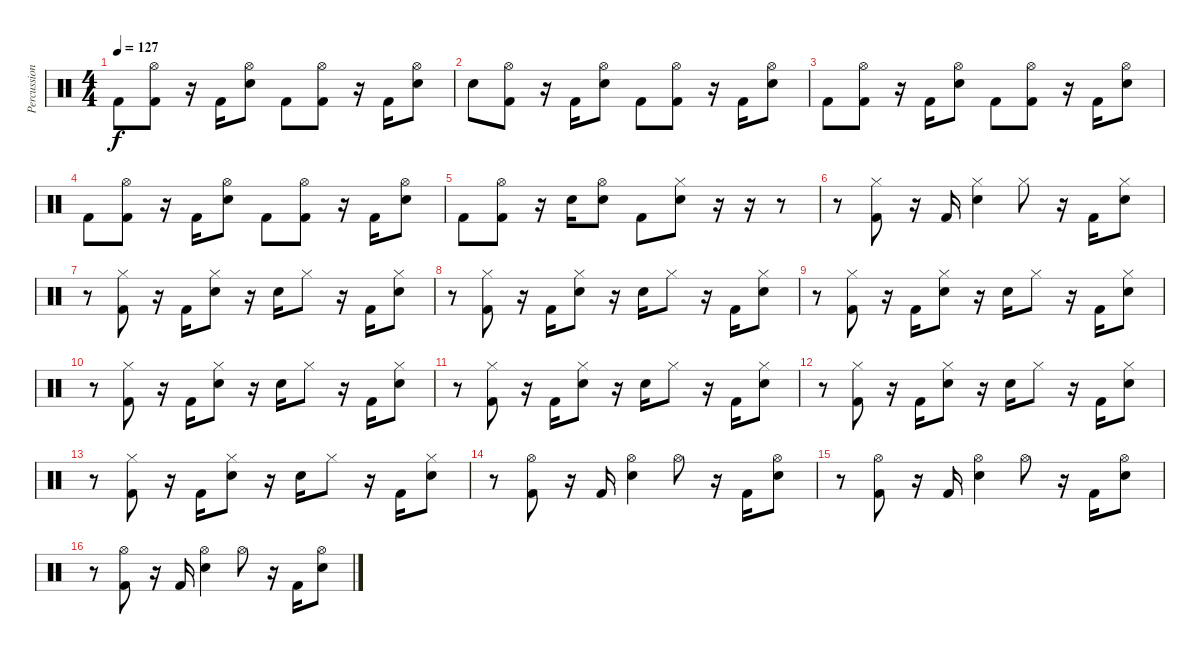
\track ("Percussion" "Percussion") {instrument percussion}
\staff {score}
\articulation defaults
\ts (4 4)
\tempo 127
\clef neutral
\ks c "Kick (hit) 2".8{dy f}
("Hi-Hat (open)" "Kick (hit) 2").8 r.16 "Kick (hit) 2".16 ("Hi-Hat (open)" "Electric Snare (hit)").8 "Kick (hit) 2".8 ("Hi-Hat (open)" "Kick (hit) 2").8 r.16 "Kick (hit) 2".16 ("Hi-Hat (open)" "Electric Snare (hit)").8 |
"Electric Snare (hit)".8 ("Hi-Hat (open)" "Kick (hit) 2").8 r.16 "Kick (hit) 2".16 ("Hi-Hat (open)" "Electric Snare (hit)").8 "Kick (hit) 2".8 ("Hi-Hat (open)" "Kick (hit) 2").8 r.16 "Kick (hit) 2".16 ("Hi-Hat (open)" "Electric Snare (hit)").8 |
"Kick (hit) 2".8 ("Hi-Hat (open)" "Kick (hit) 2").8 r.16 "Kick (hit) 2".16 ("Hi-Hat (open)" "Electric Snare (hit)").8 "Kick (hit) 2".8 ("Hi-Hat (open)" "Kick (hit) 2").8 r.16 "Kick (hit) 2".16 ("Hi-Hat (open)" "Electric Snare (hit)").8 |
"Kick (hit) 2".8 ("Hi-Hat (open)" "Kick (hit) 2").8 r.16 "Kick (hit) 2".16 ("Hi-Hat (open)" "Electric Snare (hit)").8 "Kick (hit) 2".8 ("Hi-Hat (open)" "Kick (hit) 2").8 r.16 "Kick (hit) 2".16 ("Hi-Hat (open)" "Electric Snare (hit)").8 |
"Kick (hit) 2".8 ("Hi-Hat (open)" "Kick (hit) 2").8 r.16 "Electric Snare (hit)".16 ("Hi-Hat (open)" "Electric Snare (hit)").8 "Kick (hit) 2".8 ("Hi-Hat (closed)" "Electric Snare (hit)").8 r.16 r.16 r.8 |
r.8 ("Hi-Hat (closed)" "Kick (hit) 2").8 r.16 "Kick (hit) 2".16 ("Hi-Hat (closed)" "Electric Snare (hit)").4 "Hi-Hat (closed)".8 r.16 "Kick (hit) 2".16 ("Hi-Hat (closed)" "Electric Snare (hit)").8 |
r.8 ("Hi-Hat (closed)" "Kick (hit) 2").8 r.16 "Kick (hit) 2".16 ("Hi-Hat (closed)" "Electric Snare (hit)").8 r.16 "Electric Snare (hit)".16 "Hi-Hat (closed)".8 r.16 "Kick (hit) 2".16 ("Hi-Hat (closed)" "Electric Snare (hit)").8 |
r.8 ("Hi-Hat (closed)" "Kick (hit) 2").8 r.16 "Kick (hit) 2".16 ("Hi-Hat (closed)" "Electric Snare (hit)").8 r.16 "Electric Snare (hit)".16 "Hi-Hat (closed)".8 r.16 "Kick (hit) 2".16 ("Hi-Hat (closed)" "Electric Snare (hit)").8 |
r.8 ("Hi-Hat (closed)" "Kick (hit) 2").8 r.16 "Kick (hit) 2".16 ("Hi-Hat (closed)" "Electric Snare (hit)").8 r.16 "Electric Snare (hit)".16 "Hi-Hat (closed)".8 r.16 "Kick (hit) 2".16 ("Hi-Hat (closed)" "Electric Snare (hit)").8 |
r.8 ("Hi-Hat (closed)" "Kick (hit) 2").8 r.16 "Kick (hit) 2".16 ("Hi-Hat (closed)" "Electric Snare (hit)").8 r.16 "Electric Snare (hit)".16 "Hi-Hat (closed)".8 r.16 "Kick (hit) 2".16 ("Hi-Hat (closed)" "Electric Snare (hit)").8 |
r.8 ("Hi-Hat (closed)" "Kick (hit) 2").8 r.16 "Kick (hit) 2".16 ("Hi-Hat (closed)" "Electric Snare (hit)").8 r.16 "Electric Snare (hit)".16 "Hi-Hat (closed)".8 r.16 "Kick (hit) 2".16 ("Hi-Hat (closed)" "Electric Snare (hit)").8 |
r.8 ("Hi-Hat (closed)" "Kick (hit) 2").8 r.16 "Kick (hit) 2".16 ("Hi-Hat (closed)" "Electric Snare (hit)").8 r.16 "Electric Snare (hit)".16 "Hi-Hat (closed)".8 r.16 "Kick (hit) 2".16 ("Hi-Hat (closed)" "Electric Snare (hit)").8 |
r.8 ("Hi-Hat (closed)" "Kick (hit) 2").8 r.16 "Kick (hit) 2".16 ("Hi-Hat (closed)" "Electric Snare (hit)").8 r.16 "Electric Snare (hit)".16 "Hi-Hat (closed)".8 r.16 "Kick (hit) 2".16 ("Hi-Hat (closed)" "Electric Snare (hit)").8 |
r.8 ("Hi-Hat (open)" "Kick (hit) 2").8 r.16 "Kick (hit) 2".16 ("Hi-Hat (open)" "Electric Snare (hit)").4 "Hi-Hat (open)".8 r.16 "Kick (hit) 2".16 ("Hi-Hat (open)" "Electric Snare (hit)").8 |
r.8 ("Hi-Hat (open)" "Kick (hit) 2").8 r.16 "Kick (hit) 2".16 ("Hi-Hat (open)" "Electric Snare (hit)").4 "Hi-Hat (open)".8 r.16 "Kick (hit) 2".16 ("Hi-Hat (open)" "Electric Snare (hit)").8 |
r.8 ("Hi-Hat (open)" "Kick (hit) 2").8 r.16 "Kick (hit) 2".16 ("Hi-Hat (open)" "Electric Snare (hit)").4 "Hi-Hat (open)".8 r.16 "Kick (hit) 2".16 ("Hi-Hat (open)" "Electric Snare (hit)").8
